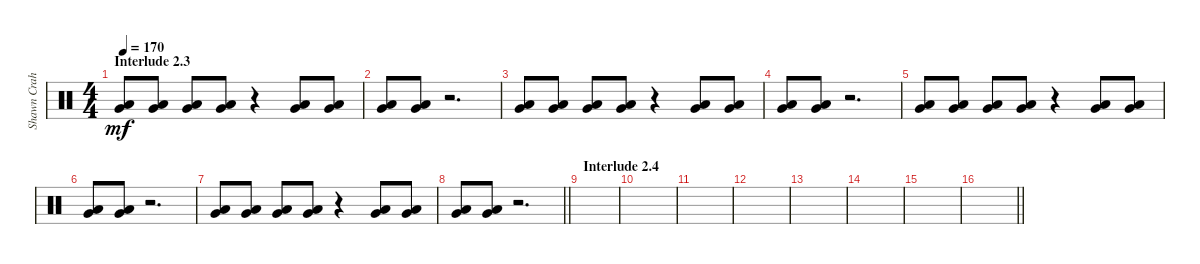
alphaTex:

\track ("Shawn Crahan" "Shawn Crah") {instrument percussion}
\staff {score}
\articulation defaults
\ts (4 4)
\section ("" "Interlude 2.3")
\tempo 170
\clef neutral
\ks c
("Very Low Tom (hit)" "Low Floor Tom (hit)").8{dy mf} ("Very Low Tom (hit)" "Low Floor Tom (hit)").8 ("Very Low Tom (hit)" "Low Floor Tom (hit)").8 ("Very Low Tom (hit)" "Low Floor Tom (hit)").8 r.4 ("Very Low Tom (hit)" "Low Floor Tom (hit)").8 ("Very Low Tom (hit)" "Low Floor Tom (hit)").8 |
("Very Low Tom (hit)" "Low Floor Tom (hit)").8 ("Very Low Tom (hit)" "Low Floor Tom (hit)").8 r.2{d} |
("Very Low Tom (hit)" "Low Floor Tom (hit)").8 ("Very Low Tom (hit)" "Low Floor Tom (hit)").8 ("Very Low Tom (hit)" "Low Floor Tom (hit)").8 ("Very Low Tom (hit)" "Low Floor Tom (hit)").8 r.4 ("Very Low Tom (hit)" "Low Floor Tom (hit)").8 ("Very Low Tom (hit)" "Low Floor Tom (hit)").8 |
("Very Low Tom (hit)" "Low Floor Tom (hit)").8 ("Very Low Tom (hit)" "Low Floor Tom (hit)").8 r.2{d} |
("Very Low Tom (hit)" "Low Floor Tom (hit)").8 ("Very Low Tom (hit)" "Low Floor Tom (hit)").8 ("Very Low Tom (hit)" "Low Floor Tom (hit)").8 ("Very Low Tom (hit)" "Low Floor Tom (hit)").8 r.4 ("Very Low Tom (hit)" "Low Floor Tom (hit)").8 ("Very Low Tom (hit)" "Low Floor Tom (hit)").8 |
("Very Low Tom (hit)" "Low Floor Tom (hit)").8 ("Very Low Tom (hit)" "Low Floor Tom (hit)").8 r.2{d} |
("Very Low Tom (hit)" "Low Floor Tom (hit)").8 ("Very Low Tom (hit)" "Low Floor Tom (hit)").8 ("Very Low Tom (hit)" "Low Floor Tom (hit)").8 ("Very Low Tom (hit)" "Low Floor Tom (hit)").8 r.4 ("Very Low Tom (hit)" "Low Floor Tom (hit)").8 ("Very Low Tom (hit)" "Low Floor Tom (hit)").8 |
\barLineRight lightlight
("Very Low Tom (hit)" "Low Floor Tom (hit)").8 ("Very Low Tom (hit)" "Low Floor Tom (hit)").8 r.2{d} |
\section ("" "Interlude 2.4")
|
|
|
|
|
|
|
\barLineRight lightlight
